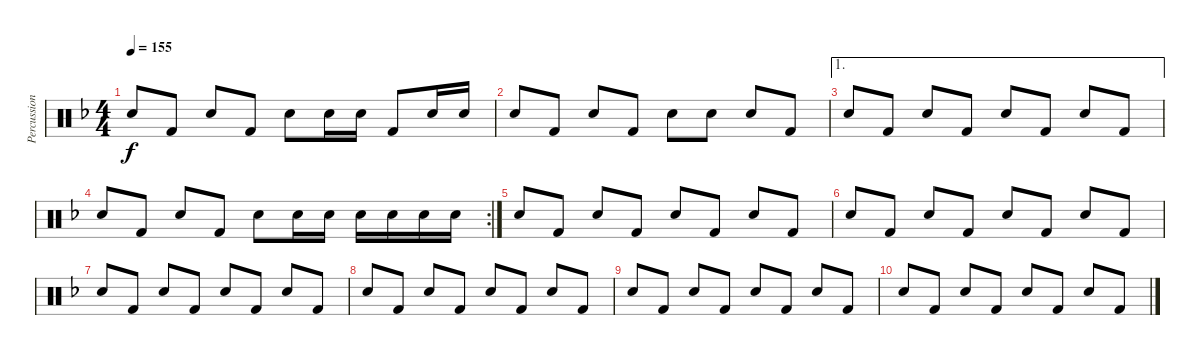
\track ("Percussions" "Percussion") {instrument percussion}
\staff {score}
\articulation defaults
\ts (4 4)
\tempo 155
\clef neutral
\ks f "Snare (hit) 2".8{dy f} "Kick (hit) 2".8 "Snare (hit) 2".8 "Kick (hit) 2".8 "Snare (hit) 2".8 "Snare (hit) 2".16 "Snare (hit) 2".16 "Kick (hit) 2".8 "Snare (hit) 2".16 "Snare (hit) 2".16
|
"Snare (hit) 2".8 "Kick (hit) 2".8 "Snare (hit) 2".8 "Kick (hit) 2".8 "Snare (hit) 2".8 "Snare (hit) 2".8 "Snare (hit) 2".8 "Kick (hit) 2".8 |
\ae 1 "Snare (hit) 2".8 "Kick (hit) 2".8 "Snare (hit) 2".8 "Kick (hit) 2".8 "Snare (hit) 2".8 "Kick (hit) 2".8 "Snare (hit) 2".8 "Kick (hit) 2".8
|
\rc 2 "Snare (hit) 2".8 "Kick (hit) 2".8 "Snare (hit) 2".8 "Kick (hit) 2".8 "Snare (hit) 2".8 "Snare (hit) 2".16 "Snare (hit) 2".16 "Snare (hit) 2".16 "Snare (hit) 2".16 "Snare (hit) 2".16 "Snare (hit) 2".16
|
"Snare (hit) 2".8 "Kick (hit) 2".8 "Snare (hit) 2".8 "Kick (hit) 2".8 "Snare (hit) 2".8 "Kick (hit) 2".8 "Snare (hit) 2".8 "Kick (hit) 2".8 |
"Snare (hit) 2".8 "Kick (hit) 2".8 "Snare (hit) 2".8 "Kick (hit) 2".8 "Snare (hit) 2".8 "Kick (hit) 2".8 "Snare (hit) 2".8 "Kick (hit) 2".8 |
"Snare (hit) 2".8{volume 0} "Kick (hit) 2".8 "Snare (hit) 2".8 "Kick (hit) 2".8 "Snare (hit) 2".8 "Kick (hit) 2".8 "Snare (hit) 2".8 "Kick (hit) 2".8 |
"Snare (hit) 2".8 "Kick (hit) 2".8 "Snare (hit) 2".8 "Kick (hit) 2".8 "Snare (hit) 2".8 "Kick (hit) 2".8 "Snare (hit) 2".8 "Kick (hit) 2".8 |
"Snare (hit) 2".8 "Kick (hit) 2".8 "Snare (hit) 2".8 "Kick (hit) 2".8 "Snare (hit) 2".8 "Kick (hit) 2".8 "Snare (hit) 2".8 "Kick (hit) 2".8 |
"Snare (hit) 2".8 "Kick (hit) 2".8 "Snare (hit) 2".8 "Kick (hit) 2".8 "Snare (hit) 2".8 "Kick (hit) 2".8 "Snare (hit) 2".8 "Kick (hit) 2".8
